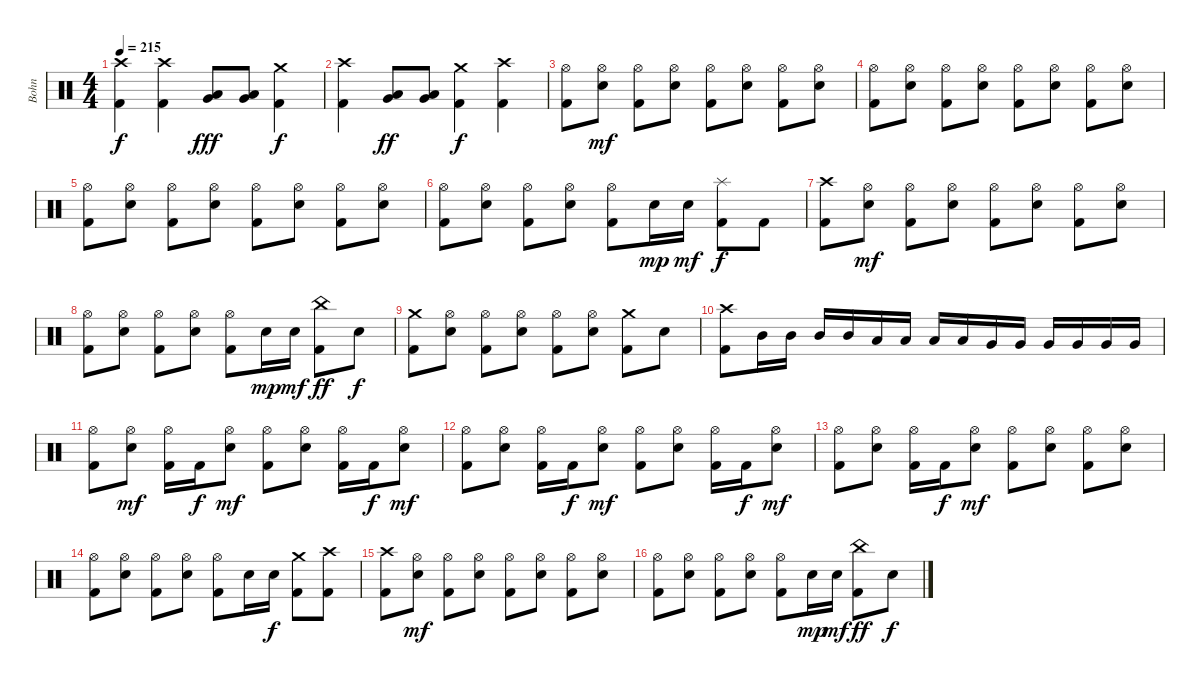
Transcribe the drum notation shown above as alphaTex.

\track ("Bohn" "Bohn") {instrument percussion}
\staff {score}
\articulation defaults
\ts (4 4)
\tempo 215
\clef neutral
\ks c
("Crash high (hit)" "Kick (hit) 2").4{dy f} ("Crash high (hit)" "Kick (hit) 2").4 ("Very Low Tom (hit)" "Low Floor Tom (hit)").8{dy fff} ("Very Low Tom (hit)" "Low Floor Tom (hit)").8 ("Crash medium (hit)" "Kick (hit) 2").4{dy f} |
("Crash high (hit)" "Kick (hit) 2").4 ("Very Low Tom (hit)" "Low Floor Tom (hit)").8{dy ff} ("Very Low Tom (hit)" "Low Floor Tom (hit)").8 ("Crash medium (hit)" "Kick (hit) 2").4{dy f} ("Crash high (hit)" "Kick (hit) 2").4 |
("Hi-Hat (open)" "Kick (hit) 2").8 ("Hi-Hat (open)" "Electric Snare (hit)").8{dy mf} ("Hi-Hat (open)" "Kick (hit) 2").8 ("Hi-Hat (open)" "Electric Snare (hit)").8 ("Hi-Hat (open)" "Kick (hit) 2").8 ("Hi-Hat (open)" "Electric Snare (hit)").8 ("Hi-Hat (open)" "Kick (hit) 2").8 ("Hi-Hat (open)" "Electric Snare (hit)").8 |
("Hi-Hat (open)" "Kick (hit) 2").8 ("Hi-Hat (open)" "Electric Snare (hit)").8 ("Hi-Hat (open)" "Kick (hit) 2").8 ("Hi-Hat (open)" "Electric Snare (hit)").8 ("Hi-Hat (open)" "Kick (hit) 2").8 ("Hi-Hat (open)" "Electric Snare (hit)").8 ("Hi-Hat (open)" "Kick (hit) 2").8 ("Hi-Hat (open)" "Electric Snare (hit)").8 |
("Hi-Hat (open)" "Kick (hit) 2").8 ("Hi-Hat (open)" "Electric Snare (hit)").8 ("Hi-Hat (open)" "Kick (hit) 2").8 ("Hi-Hat (open)" "Electric Snare (hit)").8 ("Hi-Hat (open)" "Kick (hit) 2").8 ("Hi-Hat (open)" "Electric Snare (hit)").8 ("Hi-Hat (open)" "Kick (hit) 2").8 ("Hi-Hat (open)" "Electric Snare (hit)").8 |
("Hi-Hat (open)" "Kick (hit) 2").8 ("Hi-Hat (open)" "Electric Snare (hit)").8 ("Hi-Hat (open)" "Kick (hit) 2").8 ("Hi-Hat (open)" "Electric Snare (hit)").8 ("Hi-Hat (open)" "Kick (hit) 2").8 "Electric Snare (hit)".16{dy mp} "Electric Snare (hit)".16{dy mf} ("Splash (hit)" "Kick (hit) 2").8{dy f} "Kick (hit) 2".8 |
("Crash high (hit)" "Kick (hit) 2").8 ("Hi-Hat (open)" "Electric Snare (hit)").8{dy mf} ("Hi-Hat (open)" "Kick (hit) 2").8 ("Hi-Hat (open)" "Electric Snare (hit)").8 ("Hi-Hat (open)" "Kick (hit) 2").8 ("Hi-Hat (open)" "Electric Snare (hit)").8 ("Hi-Hat (open)" "Kick (hit) 2").8 ("Hi-Hat (open)" "Electric Snare (hit)").8 |
("Hi-Hat (open)" "Kick (hit) 2").8 ("Hi-Hat (open)" "Electric Snare (hit)").8 ("Hi-Hat (open)" "Kick (hit) 2").8 ("Hi-Hat (open)" "Electric Snare (hit)").8 ("Hi-Hat (open)" "Kick (hit) 2").8 "Electric Snare (hit)".16{dy mp} "Electric Snare (hit)".16{dy mf} ("China (hit)" "Kick (hit) 2").8{dy ff} "Electric Snare (hit)".8{dy f} |
("Crash medium (hit)" "Kick (hit) 2").8 ("Hi-Hat (open)" "Electric Snare (hit)").8 ("Hi-Hat (open)" "Kick (hit) 2").8 ("Hi-Hat (open)" "Electric Snare (hit)").8 ("Hi-Hat (open)" "Kick (hit) 2").8 ("Hi-Hat (open)" "Electric Snare (hit)").8 ("Crash medium (hit)" "Kick (hit) 2").8 "Electric Snare (hit)".8 |
("Crash high (hit)" "Kick (hit) 2").8 "Mid Tom (hit)".16 "Mid Tom (hit)".16 "Mid Tom (hit)".16 "Mid Tom (hit)".16 "Low Tom (hit)".16 "Low Tom (hit)".16 "Low Tom (hit)".16 "Low Tom (hit)".16 "Very Low Tom (hit)".16 "Very Low Tom (hit)".16 "Very Low Tom (hit)".16 "Very Low Tom (hit)".16 "Very Low Tom (hit)".16 "Very Low Tom (hit)".16 |
("Hi-Hat (open)" "Kick (hit) 2").8 ("Hi-Hat (open)" "Electric Snare (hit)").8{dy mf} ("Hi-Hat (open)" "Kick (hit) 2").16 "Kick (hit) 2".16{dy f} ("Hi-Hat (open)" "Electric Snare (hit)").8{dy mf} ("Hi-Hat (open)" "Kick (hit) 2").8 ("Hi-Hat (open)" "Electric Snare (hit)").8 ("Hi-Hat (open)" "Kick (hit) 2").16 "Kick (hit) 2".16{dy f} ("Hi-Hat (open)" "Electric Snare (hit)").8{dy mf} |
("Hi-Hat (open)" "Kick (hit) 2").8 ("Hi-Hat (open)" "Electric Snare (hit)").8 ("Hi-Hat (open)" "Kick (hit) 2").16 "Kick (hit) 2".16{dy f} ("Hi-Hat (open)" "Electric Snare (hit)").8{dy mf} ("Hi-Hat (open)" "Kick (hit) 2").8 ("Hi-Hat (open)" "Electric Snare (hit)").8 ("Hi-Hat (open)" "Kick (hit) 2").16 "Kick (hit) 2".16{dy f} ("Hi-Hat (open)" "Electric Snare (hit)").8{dy mf} |
("Hi-Hat (open)" "Kick (hit) 2").8 ("Hi-Hat (open)" "Electric Snare (hit)").8 ("Hi-Hat (open)" "Kick (hit) 2").16 "Kick (hit) 2".16{dy f} ("Hi-Hat (open)" "Electric Snare (hit)").8{dy mf} ("Hi-Hat (open)" "Kick (hit) 2").8 ("Hi-Hat (open)" "Electric Snare (hit)").8 ("Hi-Hat (open)" "Kick (hit) 2").8 ("Hi-Hat (open)" "Electric Snare (hit)").8 |
("Hi-Hat (open)" "Kick (hit) 2").8 ("Hi-Hat (open)" "Electric Snare (hit)").8 ("Hi-Hat (open)" "Kick (hit) 2").8 ("Hi-Hat (open)" "Electric Snare (hit)").8 ("Hi-Hat (open)" "Kick (hit) 2").8 "Electric Snare (hit)".16 "Electric Snare (hit)".16{dy f} ("Crash medium (hit)" "Kick (hit) 2").8 ("Crash high (hit)" "Kick (hit) 2").8 |
("Crash high (hit)" "Kick (hit) 2").8 ("Hi-Hat (open)" "Electric Snare (hit)").8{dy mf} ("Hi-Hat (open)" "Kick (hit) 2").8 ("Hi-Hat (open)" "Electric Snare (hit)").8 ("Hi-Hat (open)" "Kick (hit) 2").8 ("Hi-Hat (open)" "Electric Snare (hit)").8 ("Hi-Hat (open)" "Kick (hit) 2").8 ("Hi-Hat (open)" "Electric Snare (hit)").8 |
("Hi-Hat (open)" "Kick (hit) 2").8 ("Hi-Hat (open)" "Electric Snare (hit)").8 ("Hi-Hat (open)" "Kick (hit) 2").8 ("Hi-Hat (open)" "Electric Snare (hit)").8 ("Hi-Hat (open)" "Kick (hit) 2").8 "Electric Snare (hit)".16{dy mp} "Electric Snare (hit)".16{dy mf} ("China (hit)" "Kick (hit) 2").8{dy ff} "Electric Snare (hit)".8{dy f}
